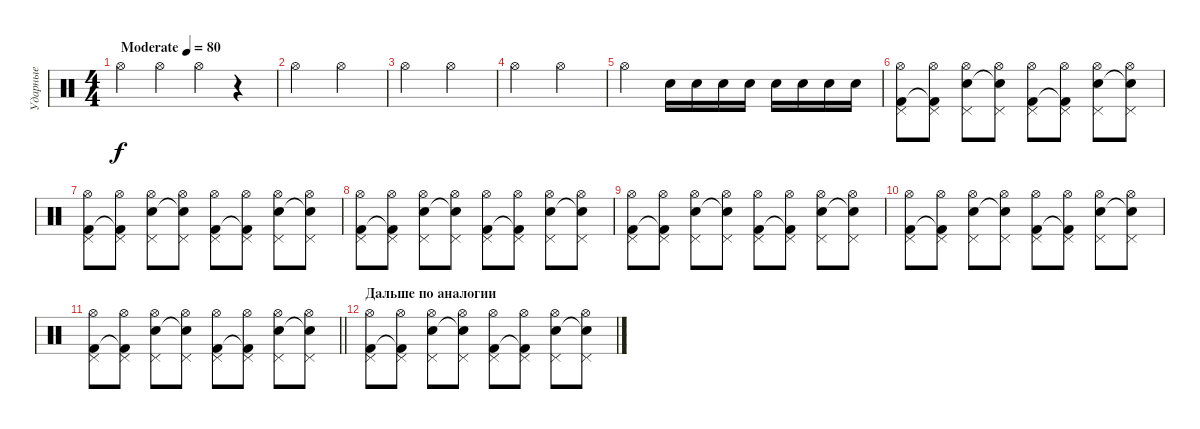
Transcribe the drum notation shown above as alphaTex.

\track ("Ударные" "Ударные") {instrument percussion}
\staff {score}
\articulation defaults
\ts (4 4)
\tempo (80 "Moderate")
\clef neutral
\ks c "Hi-Hat (open)".4{dy f} "Hi-Hat (open)".4 "Hi-Hat (open)".4
r.4 |
"Hi-Hat (open)".2 "Hi-Hat (open)".2 |
"Hi-Hat (open)".2 "Hi-Hat (open)".2 |
"Hi-Hat (open)".2 "Hi-Hat (open)".2 |
"Hi-Hat (open)".2 "Electric Snare (hit)".16{volume 16} "Electric Snare (hit)".16 "Electric Snare (hit)".16 "Electric Snare (hit)".16 "Electric Snare (hit)".16 "Electric Snare (hit)".16 "Electric Snare (hit)".16 "Electric Snare (hit)".16 |
("Kick (hit) 2" "Pedal Hi-Hat (hit)" "Hi-Hat (open)").8 ("Kick (hit) 2"{t} "Pedal Hi-Hat (hit)" "Hi-Hat (open)").8 ("Electric Snare (hit)" "Pedal Hi-Hat (hit)" "Hi-Hat (open)").8 ("Electric Snare (hit)"{t} "Pedal Hi-Hat (hit)" "Hi-Hat (open)").8 ("Kick (hit) 2" "Pedal Hi-Hat (hit)" "Hi-Hat (open)").8 ("Kick (hit) 2"{t} "Pedal Hi-Hat (hit)" "Hi-Hat (open)").8 ("Electric Snare (hit)" "Pedal Hi-Hat (hit)" "Hi-Hat (open)").8 ("Electric Snare (hit)"{t} "Pedal Hi-Hat (hit)" "Hi-Hat (open)").8 |
("Kick (hit) 2" "Pedal Hi-Hat (hit)" "Hi-Hat (open)").8 ("Kick (hit) 2"{t} "Pedal Hi-Hat (hit)" "Hi-Hat (open)").8 ("Electric Snare (hit)" "Pedal Hi-Hat (hit)" "Hi-Hat (open)").8 ("Electric Snare (hit)"{t} "Pedal Hi-Hat (hit)" "Hi-Hat (open)").8 ("Kick (hit) 2" "Pedal Hi-Hat (hit)" "Hi-Hat (open)").8 ("Kick (hit) 2"{t} "Pedal Hi-Hat (hit)" "Hi-Hat (open)").8 ("Electric Snare (hit)" "Pedal Hi-Hat (hit)" "Hi-Hat (open)").8 ("Electric Snare (hit)"{t} "Pedal Hi-Hat (hit)" "Hi-Hat (open)").8 |
("Kick (hit) 2" "Pedal Hi-Hat (hit)" "Hi-Hat (open)").8 ("Kick (hit) 2"{t} "Pedal Hi-Hat (hit)" "Hi-Hat (open)").8 ("Electric Snare (hit)" "Pedal Hi-Hat (hit)" "Hi-Hat (open)").8 ("Electric Snare (hit)"{t} "Pedal Hi-Hat (hit)" "Hi-Hat (open)").8 ("Kick (hit) 2" "Pedal Hi-Hat (hit)" "Hi-Hat (open)").8 ("Kick (hit) 2"{t} "Pedal Hi-Hat (hit)" "Hi-Hat (open)").8 ("Electric Snare (hit)" "Pedal Hi-Hat (hit)" "Hi-Hat (open)").8 ("Electric Snare (hit)"{t} "Pedal Hi-Hat (hit)" "Hi-Hat (open)").8 |
("Kick (hit) 2" "Pedal Hi-Hat (hit)" "Hi-Hat (open)").8 ("Kick (hit) 2"{t} "Pedal Hi-Hat (hit)" "Hi-Hat (open)").8 ("Electric Snare (hit)" "Pedal Hi-Hat (hit)" "Hi-Hat (open)").8 ("Electric Snare (hit)"{t} "Pedal Hi-Hat (hit)" "Hi-Hat (open)").8 ("Kick (hit) 2" "Pedal Hi-Hat (hit)" "Hi-Hat (open)").8 ("Kick (hit) 2"{t} "Pedal Hi-Hat (hit)" "Hi-Hat (open)").8 ("Electric Snare (hit)" "Pedal Hi-Hat (hit)" "Hi-Hat (open)").8 ("Electric Snare (hit)"{t} "Pedal Hi-Hat (hit)" "Hi-Hat (open)").8 |
("Kick (hit) 2" "Pedal Hi-Hat (hit)" "Hi-Hat (open)").8 ("Kick (hit) 2"{t} "Pedal Hi-Hat (hit)" "Hi-Hat (open)").8 ("Electric Snare (hit)" "Pedal Hi-Hat (hit)" "Hi-Hat (open)").8 ("Electric Snare (hit)"{t} "Pedal Hi-Hat (hit)" "Hi-Hat (open)").8 ("Kick (hit) 2" "Pedal Hi-Hat (hit)" "Hi-Hat (open)").8 ("Kick (hit) 2"{t} "Pedal Hi-Hat (hit)" "Hi-Hat (open)").8 ("Electric Snare (hit)" "Pedal Hi-Hat (hit)" "Hi-Hat (open)").8 ("Electric Snare (hit)"{t} "Pedal Hi-Hat (hit)" "Hi-Hat (open)").8 |
\barLineRight lightlight
("Kick (hit) 2" "Pedal Hi-Hat (hit)" "Hi-Hat (open)").8 ("Kick (hit) 2"{t} "Pedal Hi-Hat (hit)" "Hi-Hat (open)").8 ("Electric Snare (hit)" "Pedal Hi-Hat (hit)" "Hi-Hat (open)").8 ("Electric Snare (hit)"{t} "Pedal Hi-Hat (hit)" "Hi-Hat (open)").8 ("Kick (hit) 2" "Pedal Hi-Hat (hit)" "Hi-Hat (open)").8 ("Kick (hit) 2"{t} "Pedal Hi-Hat (hit)" "Hi-Hat (open)").8 ("Electric Snare (hit)" "Pedal Hi-Hat (hit)" "Hi-Hat (open)").8 ("Electric Snare (hit)"{t} "Pedal Hi-Hat (hit)" "Hi-Hat (open)").8 |
\section ("" "Дальше по аналогии")
("Kick (hit) 2" "Pedal Hi-Hat (hit)" "Hi-Hat (open)").8 ("Kick (hit) 2"{t} "Pedal Hi-Hat (hit)" "Hi-Hat (open)").8 ("Electric Snare (hit)" "Pedal Hi-Hat (hit)" "Hi-Hat (open)").8 ("Electric Snare (hit)"{t} "Pedal Hi-Hat (hit)" "Hi-Hat (open)").8 ("Kick (hit) 2" "Pedal Hi-Hat (hit)" "Hi-Hat (open)").8 ("Kick (hit) 2"{t} "Pedal Hi-Hat (hit)" "Hi-Hat (open)").8 ("Electric Snare (hit)" "Pedal Hi-Hat (hit)" "Hi-Hat (open)").8 ("Electric Snare (hit)"{t} "Pedal Hi-Hat (hit)" "Hi-Hat (open)").8
